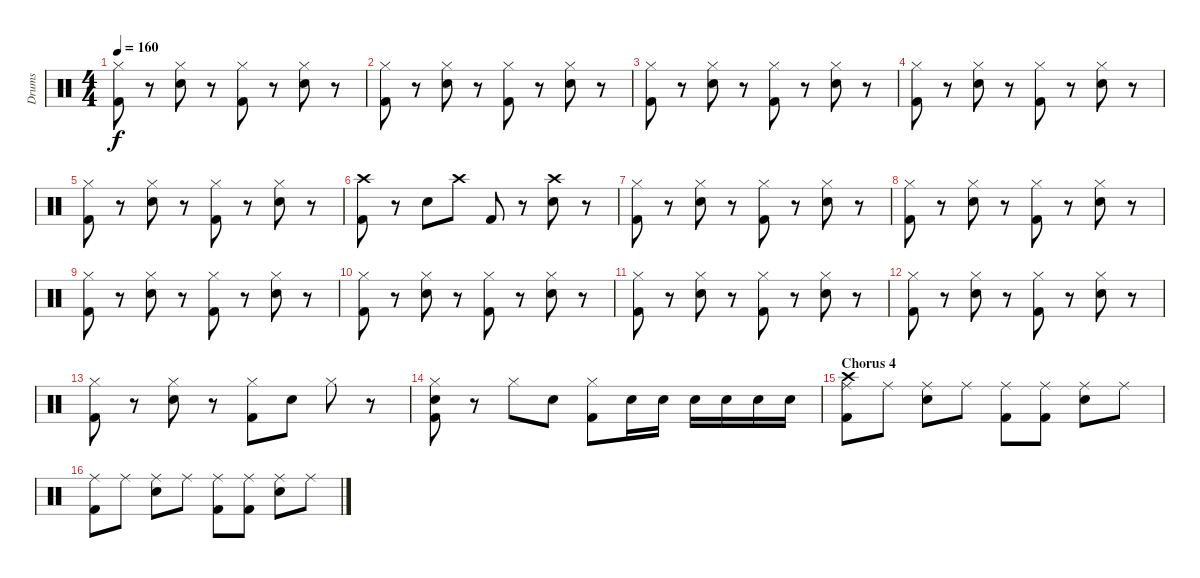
\track ("Drums" "Drums") {instrument percussion}
\staff {score}
\articulation defaults
\ts (4 4)
\tempo 160
\clef neutral
\ks c
("Hi-Hat (closed)" "Kick (hit) 2").8{dy f} r.8 ("Hi-Hat (closed)" "Electric Snare (hit)").8 r.8 ("Hi-Hat (closed)" "Kick (hit) 2").8 r.8 ("Hi-Hat (closed)" "Electric Snare (hit)").8 r.8 |
("Hi-Hat (closed)" "Kick (hit) 2").8 r.8 ("Hi-Hat (closed)" "Electric Snare (hit)").8 r.8 ("Hi-Hat (closed)" "Kick (hit) 2").8 r.8 ("Hi-Hat (closed)" "Electric Snare (hit)").8 r.8 |
("Hi-Hat (closed)" "Kick (hit) 2").8 r.8 ("Hi-Hat (closed)" "Electric Snare (hit)").8 r.8 ("Hi-Hat (closed)" "Kick (hit) 2").8 r.8 ("Hi-Hat (closed)" "Electric Snare (hit)").8 r.8 |
("Hi-Hat (closed)" "Kick (hit) 2").8 r.8 ("Hi-Hat (closed)" "Electric Snare (hit)").8 r.8 ("Hi-Hat (closed)" "Kick (hit) 2").8 r.8 ("Hi-Hat (closed)" "Electric Snare (hit)").8 r.8 |
("Hi-Hat (closed)" "Kick (hit) 2").8 r.8 ("Hi-Hat (closed)" "Electric Snare (hit)").8 r.8 ("Hi-Hat (closed)" "Kick (hit) 2").8 r.8 ("Hi-Hat (closed)" "Electric Snare (hit)").8 r.8 |
("Kick (hit) 2" "Crash high (hit)").8 r.8 "Electric Snare (hit)".8 "Crash high (hit)".8 "Kick (hit) 2".8 r.8 ("Electric Snare (hit)" "Crash high (hit)").8 r.8 |
("Hi-Hat (closed)" "Kick (hit) 2").8 r.8 ("Hi-Hat (closed)" "Electric Snare (hit)").8 r.8 ("Hi-Hat (closed)" "Kick (hit) 2").8 r.8 ("Hi-Hat (closed)" "Electric Snare (hit)").8 r.8 |
("Hi-Hat (closed)" "Kick (hit) 2").8 r.8 ("Hi-Hat (closed)" "Electric Snare (hit)").8 r.8 ("Hi-Hat (closed)" "Kick (hit) 2").8 r.8 ("Hi-Hat (closed)" "Electric Snare (hit)").8 r.8 |
("Hi-Hat (closed)" "Kick (hit) 2").8 r.8 ("Hi-Hat (closed)" "Electric Snare (hit)").8 r.8 ("Hi-Hat (closed)" "Kick (hit) 2").8 r.8 ("Hi-Hat (closed)" "Electric Snare (hit)").8 r.8 |
("Hi-Hat (closed)" "Kick (hit) 2").8 r.8 ("Hi-Hat (closed)" "Electric Snare (hit)").8 r.8 ("Hi-Hat (closed)" "Kick (hit) 2").8 r.8 ("Hi-Hat (closed)" "Electric Snare (hit)").8 r.8 |
("Hi-Hat (closed)" "Kick (hit) 2").8 r.8 ("Hi-Hat (closed)" "Electric Snare (hit)").8 r.8 ("Hi-Hat (closed)" "Kick (hit) 2").8 r.8 ("Hi-Hat (closed)" "Electric Snare (hit)").8 r.8 |
("Hi-Hat (closed)" "Kick (hit) 2").8 r.8 ("Hi-Hat (closed)" "Electric Snare (hit)").8 r.8 ("Hi-Hat (closed)" "Kick (hit) 2").8 r.8 ("Hi-Hat (closed)" "Electric Snare (hit)").8 r.8 |
("Hi-Hat (closed)" "Kick (hit) 2").8 r.8 ("Hi-Hat (closed)" "Electric Snare (hit)").8 r.8 ("Hi-Hat (closed)" "Kick (hit) 2").8 "Electric Snare (hit)".8 "Hi-Hat (closed)".8 r.8 |
("Hi-Hat (closed)" "Electric Snare (hit)" "Kick (hit) 2").8 r.8 "Hi-Hat (closed)".8 "Electric Snare (hit)".8 ("Hi-Hat (closed)" "Kick (hit) 2").8 "Electric Snare (hit)".16 "Electric Snare (hit)".16 "Electric Snare (hit)".16 "Electric Snare (hit)".16 "Electric Snare (hit)".16 "Electric Snare (hit)".16 |
\section ("" "Chorus 4")
("Ride (middle)" "Kick (hit) 2" "Crash high (hit)").8 "Ride (middle)".8 ("Ride (middle)" "Electric Snare (hit)").8 "Ride (middle)".8 ("Ride (middle)" "Kick (hit) 2").8 ("Ride (middle)" "Kick (hit) 2").8 ("Ride (middle)" "Electric Snare (hit)").8 "Ride (middle)".8 |
("Ride (middle)" "Kick (hit) 2").8 "Ride (middle)".8 ("Ride (middle)" "Electric Snare (hit)").8 "Ride (middle)".8 ("Ride (middle)" "Kick (hit) 2").8 ("Ride (middle)" "Kick (hit) 2").8 ("Ride (middle)" "Electric Snare (hit)").8 "Ride (middle)".8
